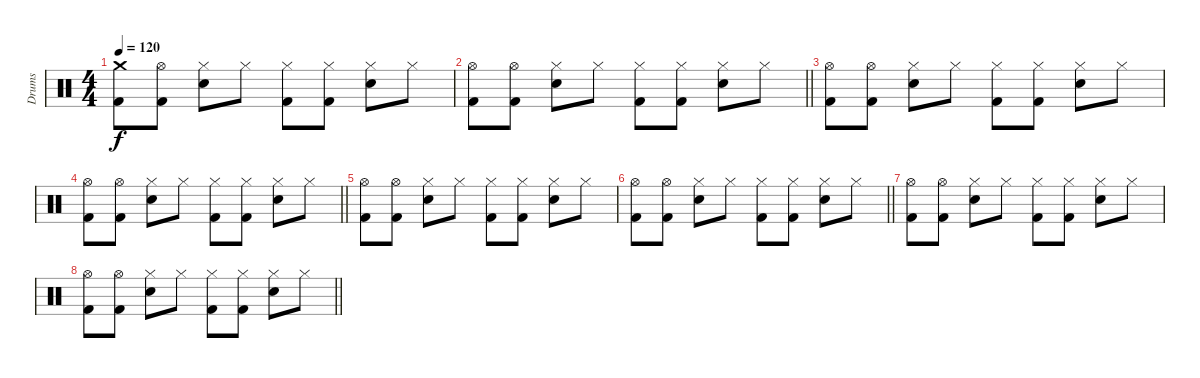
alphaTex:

\track ("Drums" "Drums") {instrument percussion}
\staff {score}
\articulation defaults
\ts (4 4)
\tempo 120
\clef neutral
\ks c
("Crash medium (hit)" "Kick (hit) 2").8{dy f} ("Hi-Hat (open)" "Kick (hit) 2").8 ("Hi-Hat (closed)" "Electric Snare (hit)").8 "Hi-Hat (closed)".8 ("Hi-Hat (closed)" "Kick (hit) 2").8 ("Hi-Hat (closed)" "Kick (hit) 2").8 ("Hi-Hat (closed)" "Electric Snare (hit)").8 "Hi-Hat (closed)".8 |
\barLineRight lightlight
("Hi-Hat (open)" "Kick (hit) 2").8 ("Hi-Hat (open)" "Kick (hit) 2").8 ("Hi-Hat (closed)" "Electric Snare (hit)").8 "Hi-Hat (closed)".8 ("Hi-Hat (closed)" "Kick (hit) 2").8 ("Hi-Hat (closed)" "Kick (hit) 2").8 ("Hi-Hat (closed)" "Electric Snare (hit)").8 "Hi-Hat (closed)".8 |
("Hi-Hat (open)" "Kick (hit) 2").8 ("Hi-Hat (open)" "Kick (hit) 2").8 ("Hi-Hat (closed)" "Electric Snare (hit)").8 "Hi-Hat (closed)".8 ("Hi-Hat (closed)" "Kick (hit) 2").8 ("Hi-Hat (closed)" "Kick (hit) 2").8 ("Hi-Hat (closed)" "Electric Snare (hit)").8 "Hi-Hat (closed)".8 |
\barLineRight lightlight
("Hi-Hat (open)" "Kick (hit) 2").8 ("Hi-Hat (open)" "Kick (hit) 2").8 ("Hi-Hat (closed)" "Electric Snare (hit)").8 "Hi-Hat (closed)".8 ("Hi-Hat (closed)" "Kick (hit) 2").8 ("Hi-Hat (closed)" "Kick (hit) 2").8 ("Hi-Hat (closed)" "Electric Snare (hit)").8 "Hi-Hat (closed)".8 |
("Hi-Hat (open)" "Kick (hit) 2").8 ("Hi-Hat (open)" "Kick (hit) 2").8 ("Hi-Hat (closed)" "Electric Snare (hit)").8 "Hi-Hat (closed)".8 ("Hi-Hat (closed)" "Kick (hit) 2").8 ("Hi-Hat (closed)" "Kick (hit) 2").8 ("Hi-Hat (closed)" "Electric Snare (hit)").8 "Hi-Hat (closed)".8 |
\barLineRight lightlight
("Hi-Hat (open)" "Kick (hit) 2").8 ("Hi-Hat (open)" "Kick (hit) 2").8 ("Hi-Hat (closed)" "Electric Snare (hit)").8 "Hi-Hat (closed)".8 ("Hi-Hat (closed)" "Kick (hit) 2").8 ("Hi-Hat (closed)" "Kick (hit) 2").8 ("Hi-Hat (closed)" "Electric Snare (hit)").8 "Hi-Hat (closed)".8 |
("Hi-Hat (open)" "Kick (hit) 2").8 ("Hi-Hat (open)" "Kick (hit) 2").8 ("Hi-Hat (closed)" "Electric Snare (hit)").8 "Hi-Hat (closed)".8 ("Hi-Hat (closed)" "Kick (hit) 2").8 ("Hi-Hat (closed)" "Kick (hit) 2").8 ("Hi-Hat (closed)" "Electric Snare (hit)").8 "Hi-Hat (closed)".8 |
\barLineRight lightlight
("Hi-Hat (open)" "Kick (hit) 2").8 ("Hi-Hat (open)" "Kick (hit) 2").8 ("Hi-Hat (closed)" "Electric Snare (hit)").8 "Hi-Hat (closed)".8 ("Hi-Hat (closed)" "Kick (hit) 2").8 ("Hi-Hat (closed)" "Kick (hit) 2").8 ("Hi-Hat (closed)" "Electric Snare (hit)").8 "Hi-Hat (closed)".8
